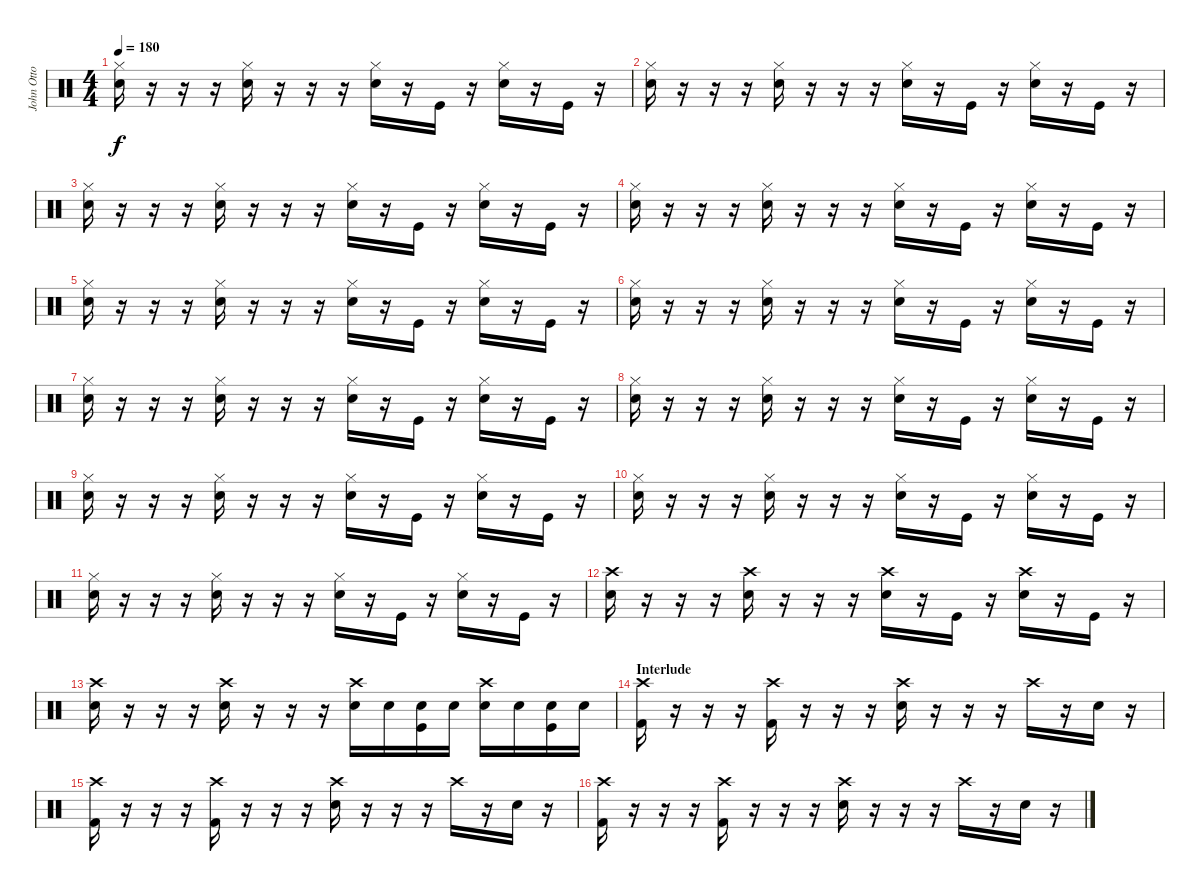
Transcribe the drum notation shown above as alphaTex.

\track ("John Otto" "John Otto") {instrument percussion}
\staff {score}
\articulation defaults
\ts (4 4)
\tempo 180
\clef neutral
\ks c
("Hi-Hat (closed)" "Electric Snare (hit)").16{dy f} r.16 r.16 r.16 ("Hi-Hat (closed)" "Electric Snare (hit)").16 r.16 r.16 r.16 ("Hi-Hat (closed)" "Electric Snare (hit)").16 r.16 "Kick (hit)".16 r.16 ("Hi-Hat (closed)" "Electric Snare (hit)").16 r.16 "Kick (hit)".16 r.16 |
("Hi-Hat (closed)" "Electric Snare (hit)").16 r.16 r.16 r.16 ("Hi-Hat (closed)" "Electric Snare (hit)").16 r.16 r.16 r.16 ("Hi-Hat (closed)" "Electric Snare (hit)").16 r.16 "Kick (hit)".16 r.16 ("Hi-Hat (closed)" "Electric Snare (hit)").16 r.16 "Kick (hit)".16 r.16 |
("Hi-Hat (closed)" "Electric Snare (hit)").16 r.16 r.16 r.16 ("Hi-Hat (closed)" "Electric Snare (hit)").16 r.16 r.16 r.16 ("Hi-Hat (closed)" "Electric Snare (hit)").16 r.16 "Kick (hit)".16 r.16 ("Hi-Hat (closed)" "Electric Snare (hit)").16 r.16 "Kick (hit)".16 r.16 |
("Hi-Hat (closed)" "Electric Snare (hit)").16 r.16 r.16 r.16 ("Hi-Hat (closed)" "Electric Snare (hit)").16 r.16 r.16 r.16 ("Hi-Hat (closed)" "Electric Snare (hit)").16 r.16 "Kick (hit)".16 r.16 ("Hi-Hat (closed)" "Electric Snare (hit)").16 r.16 "Kick (hit)".16 r.16 |
("Hi-Hat (closed)" "Electric Snare (hit)").16 r.16 r.16 r.16 ("Hi-Hat (closed)" "Electric Snare (hit)").16 r.16 r.16 r.16 ("Hi-Hat (closed)" "Electric Snare (hit)").16 r.16 "Kick (hit)".16 r.16 ("Hi-Hat (closed)" "Electric Snare (hit)").16 r.16 "Kick (hit)".16 r.16 |
("Hi-Hat (closed)" "Electric Snare (hit)").16 r.16 r.16 r.16 ("Hi-Hat (closed)" "Electric Snare (hit)").16 r.16 r.16 r.16 ("Hi-Hat (closed)" "Electric Snare (hit)").16 r.16 "Kick (hit)".16 r.16 ("Hi-Hat (closed)" "Electric Snare (hit)").16 r.16 "Kick (hit)".16 r.16 |
("Hi-Hat (closed)" "Electric Snare (hit)").16 r.16 r.16 r.16 ("Hi-Hat (closed)" "Electric Snare (hit)").16 r.16 r.16 r.16 ("Hi-Hat (closed)" "Electric Snare (hit)").16 r.16 "Kick (hit)".16 r.16 ("Hi-Hat (closed)" "Electric Snare (hit)").16 r.16 "Kick (hit)".16 r.16 |
("Hi-Hat (closed)" "Electric Snare (hit)").16 r.16 r.16 r.16 ("Hi-Hat (closed)" "Electric Snare (hit)").16 r.16 r.16 r.16 ("Hi-Hat (closed)" "Electric Snare (hit)").16 r.16 "Kick (hit)".16 r.16 ("Hi-Hat (closed)" "Electric Snare (hit)").16 r.16 "Kick (hit)".16 r.16 |
("Hi-Hat (closed)" "Electric Snare (hit)").16 r.16 r.16 r.16 ("Hi-Hat (closed)" "Electric Snare (hit)").16 r.16 r.16 r.16 ("Hi-Hat (closed)" "Electric Snare (hit)").16 r.16 "Kick (hit)".16 r.16 ("Hi-Hat (closed)" "Electric Snare (hit)").16 r.16 "Kick (hit)".16 r.16 |
("Hi-Hat (closed)" "Electric Snare (hit)").16 r.16 r.16 r.16 ("Hi-Hat (closed)" "Electric Snare (hit)").16 r.16 r.16 r.16 ("Hi-Hat (closed)" "Electric Snare (hit)").16 r.16 "Kick (hit)".16 r.16 ("Hi-Hat (closed)" "Electric Snare (hit)").16 r.16 "Kick (hit)".16 r.16 |
("Hi-Hat (closed)" "Electric Snare (hit)").16 r.16 r.16 r.16 ("Hi-Hat (closed)" "Electric Snare (hit)").16 r.16 r.16 r.16 ("Hi-Hat (closed)" "Electric Snare (hit)").16 r.16 "Kick (hit)".16 r.16 ("Hi-Hat (closed)" "Electric Snare (hit)").16 r.16 "Kick (hit)".16 r.16 |
("Crash high (hit)" "Electric Snare (hit)").16 r.16 r.16 r.16 ("Crash high (hit)" "Electric Snare (hit)").16 r.16 r.16 r.16 ("Crash high (hit)" "Electric Snare (hit)").16 r.16 "Kick (hit)".16 r.16 ("Crash high (hit)" "Electric Snare (hit)").16 r.16 "Kick (hit)".16 r.16 |
("Crash high (hit)" "Electric Snare (hit)").16 r.16 r.16 r.16 ("Crash high (hit)" "Electric Snare (hit)").16 r.16 r.16 r.16 ("Crash high (hit)" "Electric Snare (hit)").16 "Electric Snare (hit)".16 ("Electric Snare (hit)" "Kick (hit)").16 "Electric Snare (hit)".16 ("Crash high (hit)" "Electric Snare (hit)").16 "Electric Snare (hit)".16 ("Electric Snare (hit)" "Kick (hit)").16 "Electric Snare (hit)".16 |
\section ("" "Interlude")
("Crash high (hit)" "Kick (hit) 2").16 r.16 r.16 r.16 ("Crash high (hit)" "Kick (hit) 2").16 r.16 r.16 r.16 ("Crash high (hit)" "Snare (hit) 2").16 r.16 r.16 r.16 "Crash high (hit)".16 r.16 "Snare (hit) 2".16 r.16 |
("Crash high (hit)" "Kick (hit) 2").16 r.16 r.16 r.16 ("Crash high (hit)" "Kick (hit) 2").16 r.16 r.16 r.16 ("Crash high (hit)" "Snare (hit) 2").16 r.16 r.16 r.16 "Crash high (hit)".16 r.16 "Snare (hit) 2".16 r.16 |
("Crash high (hit)" "Kick (hit) 2").16 r.16 r.16 r.16 ("Crash high (hit)" "Kick (hit) 2").16 r.16 r.16 r.16 ("Crash high (hit)" "Snare (hit) 2").16 r.16 r.16 r.16 "Crash high (hit)".16 r.16 "Snare (hit) 2".16 r.16
